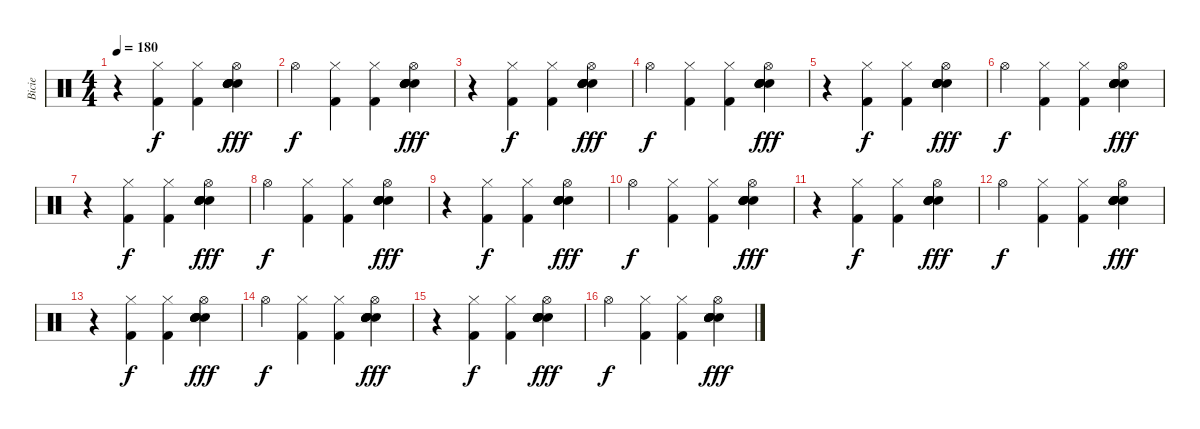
\track ("Bicie" "Bicie") {instrument percussion}
\staff {score}
\articulation defaults
\ts (4 4)
\tempo 180
\clef neutral
\ks c
r.4{dy fff} ("Hi-Hat (closed)" "Kick (hit) 2").4{dy f} ("Hi-Hat (closed)" "Kick (hit) 2").4 ("Snare (hit) 2" "Snare (hit) 2" "Snare (hit) 2" "Snare (hit) 2" "Hi-Hat (open)" "Electric Snare (hit)").4{dy fff} |
"Hi-Hat (open)".4{dy f} ("Hi-Hat (closed)" "Kick (hit) 2").4 ("Hi-Hat (closed)" "Kick (hit) 2").4 ("Electric Snare (hit)" "Snare (hit) 2" "Snare (hit) 2" "Electric Snare (hit)" "Hi-Hat (open)" "Electric Snare (hit)").4{dy fff} |
r.4 ("Hi-Hat (closed)" "Kick (hit) 2").4{dy f} ("Hi-Hat (closed)" "Kick (hit) 2").4 ("Snare (hit) 2" "Snare (hit) 2" "Snare (hit) 2" "Snare (hit) 2" "Hi-Hat (open)" "Electric Snare (hit)").4{dy fff} |
"Hi-Hat (open)".4{dy f} ("Hi-Hat (closed)" "Kick (hit) 2").4 ("Hi-Hat (closed)" "Kick (hit) 2").4 ("Electric Snare (hit)" "Snare (hit) 2" "Snare (hit) 2" "Electric Snare (hit)" "Hi-Hat (open)" "Electric Snare (hit)").4{dy fff} |
r.4 ("Hi-Hat (closed)" "Kick (hit) 2").4{dy f} ("Hi-Hat (closed)" "Kick (hit) 2").4 ("Snare (hit) 2" "Snare (hit) 2" "Snare (hit) 2" "Snare (hit) 2" "Hi-Hat (open)" "Electric Snare (hit)").4{dy fff} |
"Hi-Hat (open)".4{dy f} ("Hi-Hat (closed)" "Kick (hit) 2").4 ("Hi-Hat (closed)" "Kick (hit) 2").4 ("Electric Snare (hit)" "Snare (hit) 2" "Snare (hit) 2" "Electric Snare (hit)" "Hi-Hat (open)" "Electric Snare (hit)").4{dy fff} |
r.4 ("Hi-Hat (closed)" "Kick (hit) 2").4{dy f} ("Hi-Hat (closed)" "Kick (hit) 2").4 ("Snare (hit) 2" "Snare (hit) 2" "Snare (hit) 2" "Snare (hit) 2" "Hi-Hat (open)" "Electric Snare (hit)").4{dy fff} |
"Hi-Hat (open)".4{dy f} ("Hi-Hat (closed)" "Kick (hit) 2").4 ("Hi-Hat (closed)" "Kick (hit) 2").4 ("Electric Snare (hit)" "Snare (hit) 2" "Snare (hit) 2" "Electric Snare (hit)" "Hi-Hat (open)" "Electric Snare (hit)").4{dy fff} |
r.4 ("Hi-Hat (closed)" "Kick (hit) 2").4{dy f} ("Hi-Hat (closed)" "Kick (hit) 2").4 ("Snare (hit) 2" "Snare (hit) 2" "Snare (hit) 2" "Snare (hit) 2" "Hi-Hat (open)" "Electric Snare (hit)").4{dy fff} |
"Hi-Hat (open)".4{dy f} ("Hi-Hat (closed)" "Kick (hit) 2").4 ("Hi-Hat (closed)" "Kick (hit) 2").4 ("Electric Snare (hit)" "Snare (hit) 2" "Snare (hit) 2" "Electric Snare (hit)" "Hi-Hat (open)" "Electric Snare (hit)").4{dy fff} |
r.4 ("Hi-Hat (closed)" "Kick (hit) 2").4{dy f} ("Hi-Hat (closed)" "Kick (hit) 2").4 ("Snare (hit) 2" "Snare (hit) 2" "Snare (hit) 2" "Snare (hit) 2" "Hi-Hat (open)" "Electric Snare (hit)").4{dy fff} |
"Hi-Hat (open)".4{dy f} ("Hi-Hat (closed)" "Kick (hit) 2").4 ("Hi-Hat (closed)" "Kick (hit) 2").4 ("Electric Snare (hit)" "Snare (hit) 2" "Snare (hit) 2" "Electric Snare (hit)" "Hi-Hat (open)" "Electric Snare (hit)").4{dy fff} |
r.4 ("Hi-Hat (closed)" "Kick (hit) 2").4{dy f} ("Hi-Hat (closed)" "Kick (hit) 2").4 ("Snare (hit) 2" "Snare (hit) 2" "Snare (hit) 2" "Snare (hit) 2" "Hi-Hat (open)" "Electric Snare (hit)").4{dy fff} |
"Hi-Hat (open)".4{dy f} ("Hi-Hat (closed)" "Kick (hit) 2").4 ("Hi-Hat (closed)" "Kick (hit) 2").4 ("Electric Snare (hit)" "Snare (hit) 2" "Snare (hit) 2" "Electric Snare (hit)" "Hi-Hat (open)" "Electric Snare (hit)").4{dy fff} |
r.4 ("Hi-Hat (closed)" "Kick (hit) 2").4{dy f} ("Hi-Hat (closed)" "Kick (hit) 2").4 ("Snare (hit) 2" "Snare (hit) 2" "Snare (hit) 2" "Snare (hit) 2" "Hi-Hat (open)" "Electric Snare (hit)").4{dy fff} |
"Hi-Hat (open)".4{dy f} ("Hi-Hat (closed)" "Kick (hit) 2").4 ("Hi-Hat (closed)" "Kick (hit) 2").4 ("Electric Snare (hit)" "Snare (hit) 2" "Snare (hit) 2" "Electric Snare (hit)" "Hi-Hat (open)" "Electric Snare (hit)").4{dy fff}
